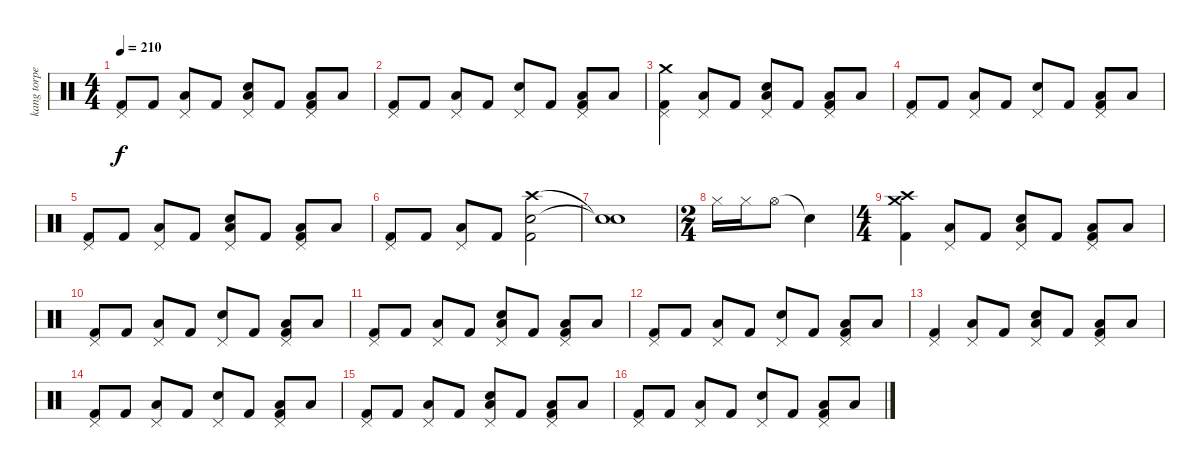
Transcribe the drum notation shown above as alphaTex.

\track ("kang torpey" "kang torpe") {instrument percussion}
\staff {score}
\articulation defaults
\ts (4 4)
\tempo 210
\clef neutral
\ks c
("Pedal Hi-Hat (hit)" "Kick (hit) 2").8{dy f} "Kick (hit) 2".8 ("Pedal Hi-Hat (hit)" "Low Floor Tom (hit)").8 "Kick (hit) 2".8 ("Pedal Hi-Hat (hit)" "Low Floor Tom (hit)" "Electric Snare (hit)").8 "Kick (hit) 2".8 ("Pedal Hi-Hat (hit)" "Low Floor Tom (hit)" "Kick (hit) 2").8 "Low Floor Tom (hit)".8 |
("Pedal Hi-Hat (hit)" "Kick (hit) 2").8 "Kick (hit) 2".8 ("Pedal Hi-Hat (hit)" "Low Floor Tom (hit)").8 "Kick (hit) 2".8 ("Pedal Hi-Hat (hit)" "Electric Snare (hit)").8 "Kick (hit) 2".8 ("Pedal Hi-Hat (hit)" "Low Floor Tom (hit)" "Kick (hit) 2").8 "Low Floor Tom (hit)".8 |
("Pedal Hi-Hat (hit)" "Crash medium (hit)" "Kick (hit) 2").4 ("Pedal Hi-Hat (hit)" "Low Floor Tom (hit)").8 "Kick (hit) 2".8 ("Pedal Hi-Hat (hit)" "Low Floor Tom (hit)" "Electric Snare (hit)").8 "Kick (hit) 2".8 ("Pedal Hi-Hat (hit)" "Low Floor Tom (hit)" "Kick (hit) 2").8 "Low Floor Tom (hit)".8 |
("Pedal Hi-Hat (hit)" "Kick (hit) 2").8 "Kick (hit) 2".8 ("Pedal Hi-Hat (hit)" "Low Floor Tom (hit)").8 "Kick (hit) 2".8 ("Pedal Hi-Hat (hit)" "Electric Snare (hit)").8 "Kick (hit) 2".8 ("Pedal Hi-Hat (hit)" "Low Floor Tom (hit)" "Kick (hit) 2").8 "Low Floor Tom (hit)".8 |
("Pedal Hi-Hat (hit)" "Kick (hit) 2").8 "Kick (hit) 2".8 ("Pedal Hi-Hat (hit)" "Low Floor Tom (hit)").8 "Kick (hit) 2".8 ("Pedal Hi-Hat (hit)" "Low Floor Tom (hit)" "Electric Snare (hit)").8 "Kick (hit) 2".8 ("Pedal Hi-Hat (hit)" "Low Floor Tom (hit)" "Kick (hit) 2").8 "Low Floor Tom (hit)".8 |
("Pedal Hi-Hat (hit)" "Kick (hit) 2").8 "Kick (hit) 2".8 ("Pedal Hi-Hat (hit)" "Low Floor Tom (hit)").8 "Kick (hit) 2".8 ("Crash high (hit)" "Electric Snare (hit)" "Kick (hit) 2").2 |
("Snare (hit)"{t} "Snare (hit)"{t}).1 |
\ts (2 4)
"Hi-Hat (closed)".16 "Hi-Hat (closed)".16 "Hi-Hat (open)".8 "Snare (hit)"{t}.4 |
\ts (4 4)
("Crash medium (hit)" "Crash high (hit)" "Kick (hit) 2").4 ("Pedal Hi-Hat (hit)" "Low Floor Tom (hit)").8 "Kick (hit) 2".8 ("Pedal Hi-Hat (hit)" "Low Floor Tom (hit)" "Electric Snare (hit)").8 "Kick (hit) 2".8 ("Pedal Hi-Hat (hit)" "Low Floor Tom (hit)" "Kick (hit) 2").8 "Low Floor Tom (hit)".8 |
("Pedal Hi-Hat (hit)" "Kick (hit) 2").8 "Kick (hit) 2".8 ("Pedal Hi-Hat (hit)" "Low Floor Tom (hit)").8 "Kick (hit) 2".8 ("Pedal Hi-Hat (hit)" "Electric Snare (hit)").8 "Kick (hit) 2".8 ("Pedal Hi-Hat (hit)" "Low Floor Tom (hit)" "Kick (hit) 2").8 "Low Floor Tom (hit)".8 |
("Pedal Hi-Hat (hit)" "Kick (hit) 2").8 "Kick (hit) 2".8 ("Pedal Hi-Hat (hit)" "Low Floor Tom (hit)").8 "Kick (hit) 2".8 ("Pedal Hi-Hat (hit)" "Low Floor Tom (hit)" "Electric Snare (hit)").8 "Kick (hit) 2".8 ("Pedal Hi-Hat (hit)" "Low Floor Tom (hit)" "Kick (hit) 2").8 "Low Floor Tom (hit)".8 |
("Pedal Hi-Hat (hit)" "Kick (hit) 2").8 "Kick (hit) 2".8 ("Pedal Hi-Hat (hit)" "Low Floor Tom (hit)").8 "Kick (hit) 2".8 ("Pedal Hi-Hat (hit)" "Electric Snare (hit)").8 "Kick (hit) 2".8 ("Pedal Hi-Hat (hit)" "Low Floor Tom (hit)" "Kick (hit) 2").8 "Low Floor Tom (hit)".8 |
("Pedal Hi-Hat (hit)" "Kick (hit) 2").4 ("Pedal Hi-Hat (hit)" "Low Floor Tom (hit)").8 "Kick (hit) 2".8 ("Pedal Hi-Hat (hit)" "Low Floor Tom (hit)" "Electric Snare (hit)").8 "Kick (hit) 2".8 ("Pedal Hi-Hat (hit)" "Low Floor Tom (hit)" "Kick (hit) 2").8 "Low Floor Tom (hit)".8 |
("Pedal Hi-Hat (hit)" "Kick (hit) 2").8 "Kick (hit) 2".8 ("Pedal Hi-Hat (hit)" "Low Floor Tom (hit)").8 "Kick (hit) 2".8 ("Pedal Hi-Hat (hit)" "Electric Snare (hit)").8 "Kick (hit) 2".8 ("Pedal Hi-Hat (hit)" "Low Floor Tom (hit)" "Kick (hit) 2").8 "Low Floor Tom (hit)".8 |
("Pedal Hi-Hat (hit)" "Kick (hit) 2").8 "Kick (hit) 2".8 ("Pedal Hi-Hat (hit)" "Low Floor Tom (hit)").8 "Kick (hit) 2".8 ("Pedal Hi-Hat (hit)" "Low Floor Tom (hit)" "Electric Snare (hit)").8 "Kick (hit) 2".8 ("Pedal Hi-Hat (hit)" "Low Floor Tom (hit)" "Kick (hit) 2").8 "Low Floor Tom (hit)".8 |
("Pedal Hi-Hat (hit)" "Kick (hit) 2").8 "Kick (hit) 2".8 ("Pedal Hi-Hat (hit)" "Low Floor Tom (hit)").8 "Kick (hit) 2".8 ("Pedal Hi-Hat (hit)" "Electric Snare (hit)").8 "Kick (hit) 2".8 ("Pedal Hi-Hat (hit)" "Low Floor Tom (hit)" "Kick (hit) 2").8 "Low Floor Tom (hit)".8
